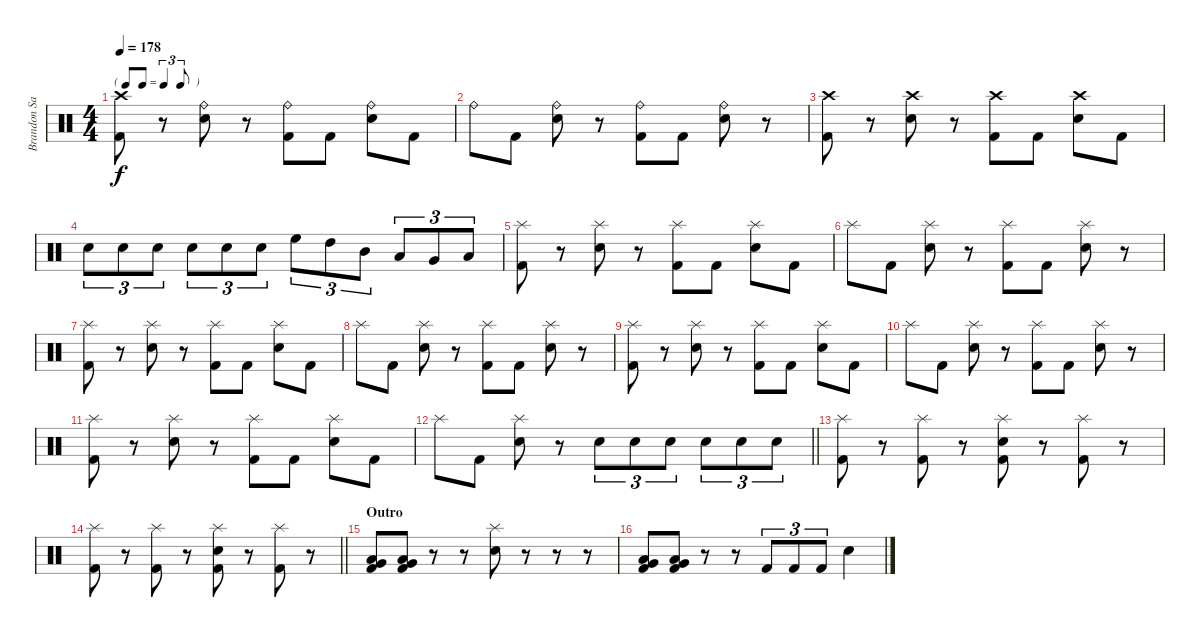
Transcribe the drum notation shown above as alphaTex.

\track ("Brandon Saller" "Brandon Sa") {instrument percussion}
\staff {score}
\articulation defaults
\ts (4 4)
\tf triplet8th
\tempo 178
\clef neutral
\ks c
("Crash high (hit)" "Kick (hit) 2").8{dy f} r.8 ("Ride (bell)" "Electric Snare (hit)").8 r.8 ("Ride (bell)" "Kick (hit) 2").8 "Kick (hit) 2".8 ("Ride (bell)" "Electric Snare (hit)").8 "Kick (hit) 2".8 |
"Ride (bell)".8 "Kick (hit) 2".8 ("Ride (bell)" "Electric Snare (hit)").8 r.8 ("Ride (bell)" "Kick (hit) 2").8 "Kick (hit) 2".8 ("Ride (bell)" "Electric Snare (hit)").8 r.8 |
("Crash high (hit)" "Kick (hit) 2").8 r.8 ("Crash high (hit)" "Electric Snare (hit)").8 r.8 ("Crash high (hit)" "Kick (hit) 2").8 "Kick (hit) 2".8 ("Crash high (hit)" "Electric Snare (hit)").8 "Kick (hit) 2".8 |
"Electric Snare (hit)".8{tu (3 2)} "Electric Snare (hit)".8{tu (3 2)} "Electric Snare (hit)".8{tu (3 2)} "Electric Snare (hit)".8{tu (3 2)} "Electric Snare (hit)".8{tu (3 2)} "Electric Snare (hit)".8{tu (3 2)} "High Floor Tom (hit)".8{tu (3 2)} "High Tom (hit)".8{tu (3 2)} "Mid Tom (hit)".8{tu (3 2)} "Low Tom (hit)".8{tu (3 2)} "Very Low Tom (hit)".8{tu (3 2)} "Low Floor Tom (hit)".8{tu (3 2)} |
("Splash (hit)" "Kick (hit) 2").8 r.8 ("Splash (hit)" "Electric Snare (hit)").8 r.8 ("Splash (hit)" "Kick (hit) 2").8 "Kick (hit) 2".8 ("Splash (hit)" "Electric Snare (hit)").8 "Kick (hit) 2".8 |
"Splash (hit)".8 "Kick (hit) 2".8 ("Splash (hit)" "Electric Snare (hit)").8 r.8 ("Splash (hit)" "Kick (hit) 2").8 "Kick (hit) 2".8 ("Splash (hit)" "Electric Snare (hit)").8 r.8 |
("Splash (hit)" "Kick (hit) 2").8 r.8 ("Splash (hit)" "Electric Snare (hit)").8 r.8 ("Splash (hit)" "Kick (hit) 2").8 "Kick (hit) 2".8 ("Splash (hit)" "Electric Snare (hit)").8 "Kick (hit) 2".8 |
"Splash (hit)".8 "Kick (hit) 2".8 ("Splash (hit)" "Electric Snare (hit)").8 r.8 ("Splash (hit)" "Kick (hit) 2").8 "Kick (hit) 2".8 ("Splash (hit)" "Electric Snare (hit)").8 r.8 |
("Splash (hit)" "Kick (hit) 2").8 r.8 ("Splash (hit)" "Electric Snare (hit)").8 r.8 ("Splash (hit)" "Kick (hit) 2").8 "Kick (hit) 2".8 ("Splash (hit)" "Electric Snare (hit)").8 "Kick (hit) 2".8 |
"Splash (hit)".8 "Kick (hit) 2".8 ("Splash (hit)" "Electric Snare (hit)").8 r.8 ("Splash (hit)" "Kick (hit) 2").8 "Kick (hit) 2".8 ("Splash (hit)" "Electric Snare (hit)").8 r.8 |
("Splash (hit)" "Kick (hit) 2").8 r.8 ("Splash (hit)" "Electric Snare (hit)").8 r.8 ("Splash (hit)" "Kick (hit) 2").8 "Kick (hit) 2".8 ("Splash (hit)" "Electric Snare (hit)").8 "Kick (hit) 2".8 |
\barLineRight lightlight "Splash (hit)".8 "Kick (hit) 2".8
("Splash (hit)" "Electric Snare (hit)").8 r.8 "Electric Snare (hit)".8{tu (3 2)} "Electric Snare (hit)".8{tu (3 2)} "Electric Snare (hit)".8{tu (3 2)} "Electric Snare (hit)".8{tu (3 2)} "Electric Snare (hit)".8{tu (3 2)} "Electric Snare (hit)".8{tu (3 2)} |
("Splash (hit)" "Kick (hit) 2").8 r.8 ("Splash (hit)" "Kick (hit) 2").8 r.8 ("Splash (hit)" "Electric Snare (hit)" "Kick (hit) 2").8 r.8 ("Splash (hit)" "Kick (hit) 2").8 r.8 |
\barLineRight lightlight
("Splash (hit)" "Kick (hit) 2").8 r.8 ("Splash (hit)" "Kick (hit) 2").8 r.8 ("Splash (hit)" "Electric Snare (hit)" "Kick (hit) 2").8 r.8 ("Splash (hit)" "Kick (hit) 2").8 r.8 |
\section ("" "Outro")
("Very Low Tom (hit)" "Low Floor Tom (hit)" "Kick (hit) 2").8 ("Very Low Tom (hit)" "Low Floor Tom (hit)" "Kick (hit) 2").8 r.8 r.8 ("Splash (hit)" "Electric Snare (hit)").8 r.8 r.8 r.8 |
("Very Low Tom (hit)" "Low Floor Tom (hit)" "Kick (hit) 2").8 ("Very Low Tom (hit)" "Low Floor Tom (hit)" "Kick (hit) 2").8 r.8 r.8 "Kick (hit) 2".8{tu (3 2)} "Kick (hit) 2".8{tu (3 2)} "Kick (hit) 2".8{tu (3 2)} "Electric Snare (hit)".4
